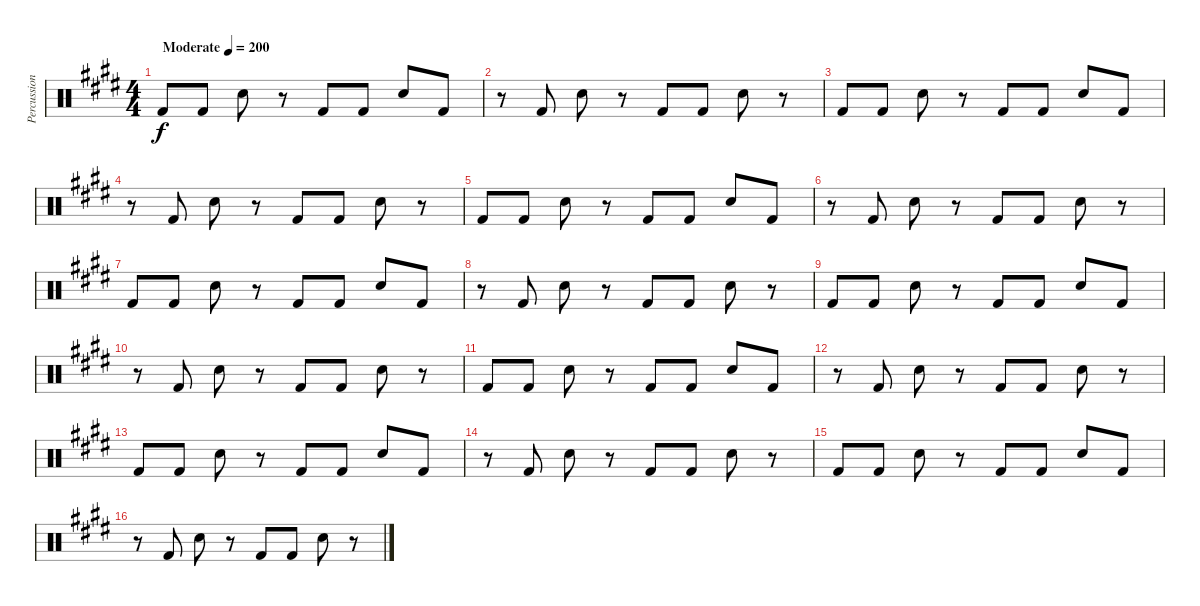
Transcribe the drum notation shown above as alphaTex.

\track ("Percussion" "Percussion") {instrument percussion}
\staff {score}
\articulation defaults
\ts (4 4)
\tempo (200 "Moderate")
\clef neutral
\ks e "Kick (hit) 2".8{dy f} "Kick (hit) 2".8 "Snare (hit) 2".8
r.8 "Kick (hit) 2".8 "Kick (hit) 2".8 "Snare (hit) 2".8 "Kick (hit) 2".8 |
r.8 "Kick (hit) 2".8 "Snare (hit) 2".8 r.8 "Kick (hit) 2".8 "Kick (hit) 2".8 "Snare (hit) 2".8 r.8 |
"Kick (hit) 2".8 "Kick (hit) 2".8 "Snare (hit) 2".8 r.8 "Kick (hit) 2".8 "Kick (hit) 2".8 "Snare (hit) 2".8 "Kick (hit) 2".8 |
r.8 "Kick (hit) 2".8 "Snare (hit) 2".8 r.8 "Kick (hit) 2".8 "Kick (hit) 2".8 "Snare (hit) 2".8 r.8 |
"Kick (hit) 2".8 "Kick (hit) 2".8 "Snare (hit) 2".8 r.8 "Kick (hit) 2".8 "Kick (hit) 2".8 "Snare (hit) 2".8 "Kick (hit) 2".8 |
r.8 "Kick (hit) 2".8 "Snare (hit) 2".8 r.8 "Kick (hit) 2".8 "Kick (hit) 2".8 "Snare (hit) 2".8 r.8 |
"Kick (hit) 2".8 "Kick (hit) 2".8 "Snare (hit) 2".8 r.8 "Kick (hit) 2".8 "Kick (hit) 2".8 "Snare (hit) 2".8 "Kick (hit) 2".8 |
r.8 "Kick (hit) 2".8 "Snare (hit) 2".8 r.8 "Kick (hit) 2".8 "Kick (hit) 2".8 "Snare (hit) 2".8 r.8 |
"Kick (hit) 2".8 "Kick (hit) 2".8 "Snare (hit) 2".8 r.8 "Kick (hit) 2".8 "Kick (hit) 2".8 "Snare (hit) 2".8 "Kick (hit) 2".8 |
r.8 "Kick (hit) 2".8 "Snare (hit) 2".8 r.8 "Kick (hit) 2".8 "Kick (hit) 2".8 "Snare (hit) 2".8 r.8 |
"Kick (hit) 2".8 "Kick (hit) 2".8 "Snare (hit) 2".8 r.8 "Kick (hit) 2".8 "Kick (hit) 2".8 "Snare (hit) 2".8 "Kick (hit) 2".8 |
r.8 "Kick (hit) 2".8 "Snare (hit) 2".8 r.8 "Kick (hit) 2".8 "Kick (hit) 2".8 "Snare (hit) 2".8 r.8 |
"Kick (hit) 2".8 "Kick (hit) 2".8 "Snare (hit) 2".8 r.8 "Kick (hit) 2".8 "Kick (hit) 2".8 "Snare (hit) 2".8 "Kick (hit) 2".8 |
r.8 "Kick (hit) 2".8 "Snare (hit) 2".8 r.8 "Kick (hit) 2".8 "Kick (hit) 2".8 "Snare (hit) 2".8 r.8 |
"Kick (hit) 2".8 "Kick (hit) 2".8 "Snare (hit) 2".8 r.8 "Kick (hit) 2".8 "Kick (hit) 2".8 "Snare (hit) 2".8 "Kick (hit) 2".8 |
r.8 "Kick (hit) 2".8 "Snare (hit) 2".8 r.8 "Kick (hit) 2".8 "Kick (hit) 2".8 "Snare (hit) 2".8 r.8
